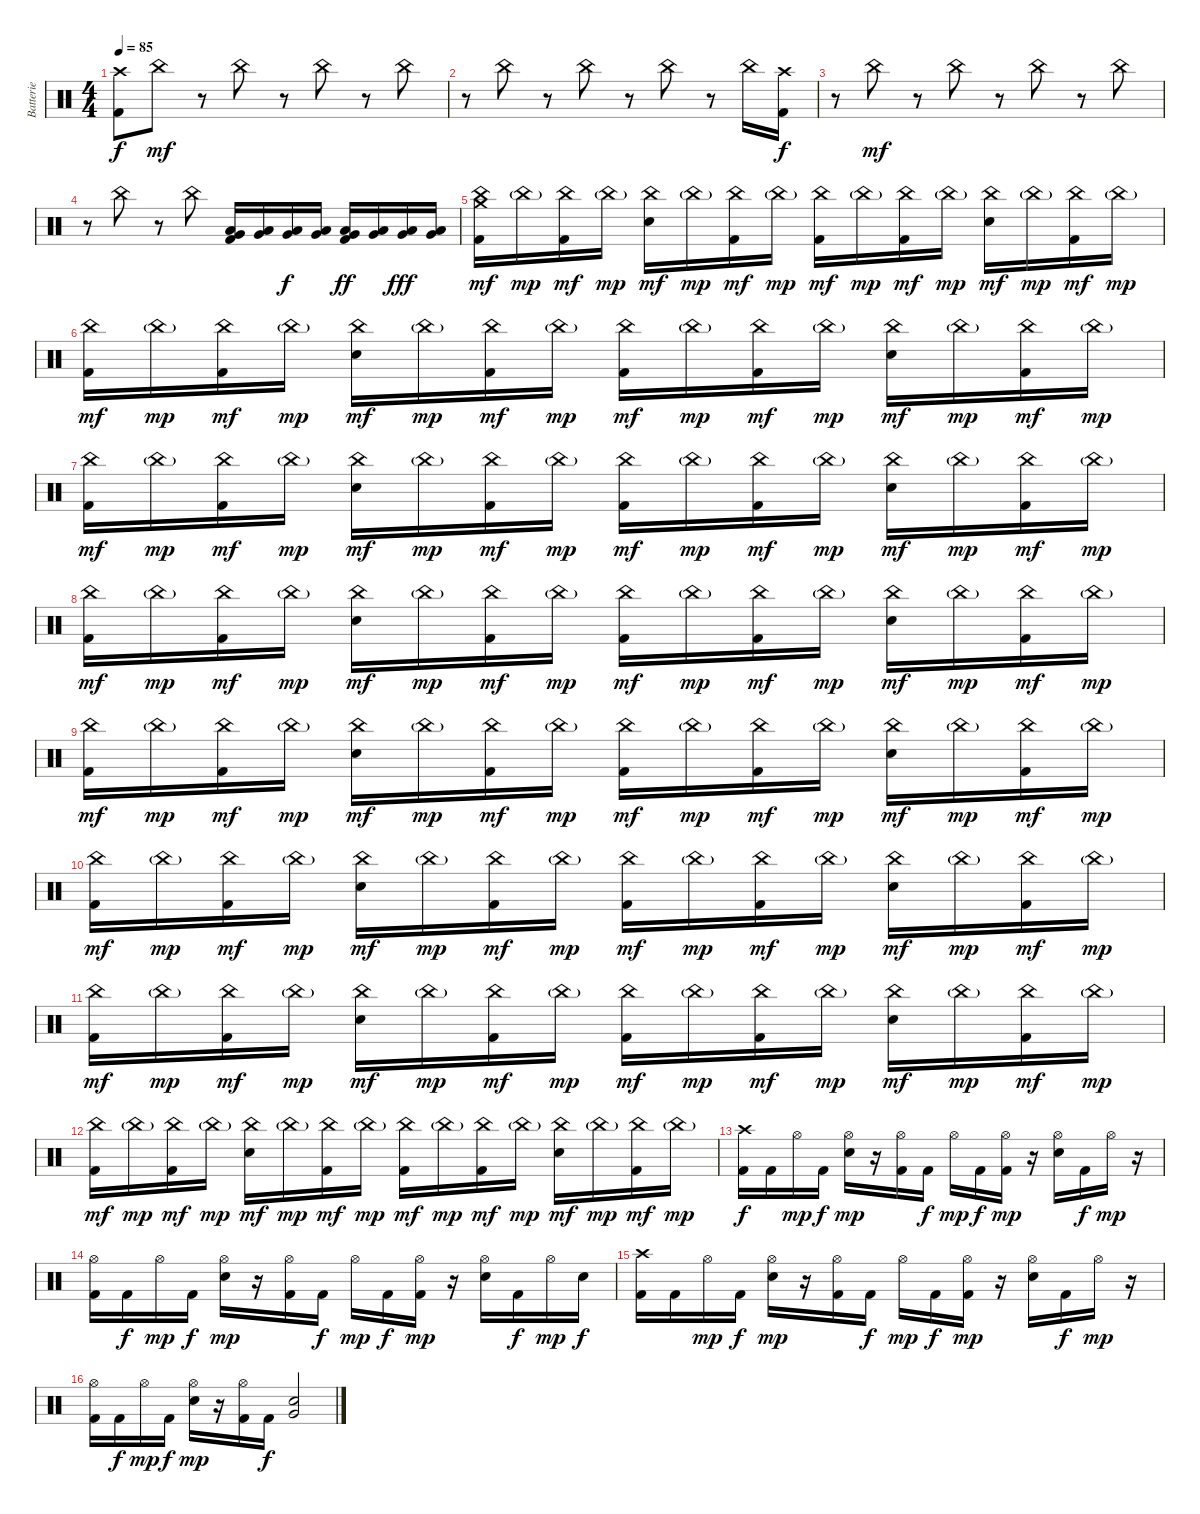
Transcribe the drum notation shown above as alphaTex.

\track ("Batterie" "Batterie") {instrument percussion}
\staff {score}
\articulation defaults
\ts (4 4)
\tempo 85
\clef neutral
\ks c
("Crash high (hit)" "Kick (hit) 2").8{dy f} "China (hit)".8{dy mf} r.8 "China (hit)".8 r.8 "China (hit)".8 r.8 "China (hit)".8 |
r.8 "China (hit)".8 r.8 "China (hit)".8 r.8 "China (hit)".8 r.8 "China (hit)".16 ("Crash high (hit)" "Kick (hit) 2").16{dy f} |
r.8 "China (hit)".8{dy mf} r.8 "China (hit)".8 r.8 "China (hit)".8 r.8 "China (hit)".8 |
r.8 "China (hit)".8 r.8 "China (hit)".8 ("Low Tom (hit)" "Very Low Tom (hit)" "Kick (hit) 2").16 ("Low Tom (hit)" "Very Low Tom (hit)").16 ("Low Tom (hit)" "Very Low Tom (hit)").16{dy f} ("Low Tom (hit)" "Very Low Tom (hit)").16 ("Low Tom (hit)" "Very Low Tom (hit)" "Kick (hit) 2").16{dy ff} ("Low Tom (hit)" "Very Low Tom (hit)").16 ("Low Tom (hit)" "Very Low Tom (hit)").16{dy fff} ("Low Tom (hit)" "Very Low Tom (hit)").16 |
("Crash medium (hit)" "China (hit)" "Kick (hit) 2").16{dy mf} "China (hit)"{g}.16{dy mp} ("China (hit)" "Kick (hit) 2").16{dy mf} "China (hit)"{g}.16{dy mp} ("China (hit)" "Electric Snare (hit)").16{dy mf} "China (hit)"{g}.16{dy mp} ("China (hit)" "Kick (hit) 2").16{dy mf} "China (hit)"{g}.16{dy mp} ("China (hit)" "Kick (hit) 2").16{dy mf} "China (hit)"{g}.16{dy mp} ("China (hit)" "Kick (hit) 2").16{dy mf} "China (hit)"{g}.16{dy mp} ("China (hit)" "Electric Snare (hit)").16{dy mf} "China (hit)"{g}.16{dy mp} ("China (hit)" "Kick (hit) 2").16{dy mf} "China (hit)"{g}.16{dy mp} |
("China (hit)" "Kick (hit) 2").16{dy mf} "China (hit)"{g}.16{dy mp} ("China (hit)" "Kick (hit) 2").16{dy mf} "China (hit)"{g}.16{dy mp} ("China (hit)" "Electric Snare (hit)").16{dy mf} "China (hit)"{g}.16{dy mp} ("China (hit)" "Kick (hit) 2").16{dy mf} "China (hit)"{g}.16{dy mp} ("China (hit)" "Kick (hit) 2").16{dy mf} "China (hit)"{g}.16{dy mp} ("China (hit)" "Kick (hit) 2").16{dy mf} "China (hit)"{g}.16{dy mp} ("China (hit)" "Electric Snare (hit)").16{dy mf} "China (hit)"{g}.16{dy mp} ("China (hit)" "Kick (hit) 2").16{dy mf} "China (hit)"{g}.16{dy mp} |
("China (hit)" "Kick (hit) 2").16{dy mf} "China (hit)"{g}.16{dy mp} ("China (hit)" "Kick (hit) 2").16{dy mf} "China (hit)"{g}.16{dy mp} ("China (hit)" "Electric Snare (hit)").16{dy mf} "China (hit)"{g}.16{dy mp} ("China (hit)" "Kick (hit) 2").16{dy mf} "China (hit)"{g}.16{dy mp} ("China (hit)" "Kick (hit) 2").16{dy mf} "China (hit)"{g}.16{dy mp} ("China (hit)" "Kick (hit) 2").16{dy mf} "China (hit)"{g}.16{dy mp} ("China (hit)" "Electric Snare (hit)").16{dy mf} "China (hit)"{g}.16{dy mp} ("China (hit)" "Kick (hit) 2").16{dy mf} "China (hit)"{g}.16{dy mp} |
("China (hit)" "Kick (hit) 2").16{dy mf} "China (hit)"{g}.16{dy mp} ("China (hit)" "Kick (hit) 2").16{dy mf} "China (hit)"{g}.16{dy mp} ("China (hit)" "Electric Snare (hit)").16{dy mf} "China (hit)"{g}.16{dy mp} ("China (hit)" "Kick (hit) 2").16{dy mf} "China (hit)"{g}.16{dy mp} ("China (hit)" "Kick (hit) 2").16{dy mf} "China (hit)"{g}.16{dy mp} ("China (hit)" "Kick (hit) 2").16{dy mf} "China (hit)"{g}.16{dy mp} ("China (hit)" "Electric Snare (hit)").16{dy mf} "China (hit)"{g}.16{dy mp} ("China (hit)" "Kick (hit) 2").16{dy mf} "China (hit)"{g}.16{dy mp} |
("China (hit)" "Kick (hit) 2").16{dy mf} "China (hit)"{g}.16{dy mp} ("China (hit)" "Kick (hit) 2").16{dy mf} "China (hit)"{g}.16{dy mp} ("China (hit)" "Electric Snare (hit)").16{dy mf} "China (hit)"{g}.16{dy mp} ("China (hit)" "Kick (hit) 2").16{dy mf} "China (hit)"{g}.16{dy mp} ("China (hit)" "Kick (hit) 2").16{dy mf} "China (hit)"{g}.16{dy mp} ("China (hit)" "Kick (hit) 2").16{dy mf} "China (hit)"{g}.16{dy mp} ("China (hit)" "Electric Snare (hit)").16{dy mf} "China (hit)"{g}.16{dy mp} ("China (hit)" "Kick (hit) 2").16{dy mf} "China (hit)"{g}.16{dy mp} |
("China (hit)" "Kick (hit) 2").16{dy mf} "China (hit)"{g}.16{dy mp} ("China (hit)" "Kick (hit) 2").16{dy mf} "China (hit)"{g}.16{dy mp} ("China (hit)" "Electric Snare (hit)").16{dy mf} "China (hit)"{g}.16{dy mp} ("China (hit)" "Kick (hit) 2").16{dy mf} "China (hit)"{g}.16{dy mp} ("China (hit)" "Kick (hit) 2").16{dy mf} "China (hit)"{g}.16{dy mp} ("China (hit)" "Kick (hit) 2").16{dy mf} "China (hit)"{g}.16{dy mp} ("China (hit)" "Electric Snare (hit)").16{dy mf} "China (hit)"{g}.16{dy mp} ("China (hit)" "Kick (hit) 2").16{dy mf} "China (hit)"{g}.16{dy mp} |
("China (hit)" "Kick (hit) 2").16{dy mf} "China (hit)"{g}.16{dy mp} ("China (hit)" "Kick (hit) 2").16{dy mf} "China (hit)"{g}.16{dy mp} ("China (hit)" "Electric Snare (hit)").16{dy mf} "China (hit)"{g}.16{dy mp} ("China (hit)" "Kick (hit) 2").16{dy mf} "China (hit)"{g}.16{dy mp} ("China (hit)" "Kick (hit) 2").16{dy mf} "China (hit)"{g}.16{dy mp} ("China (hit)" "Kick (hit) 2").16{dy mf} "China (hit)"{g}.16{dy mp} ("China (hit)" "Electric Snare (hit)").16{dy mf} "China (hit)"{g}.16{dy mp} ("China (hit)" "Kick (hit) 2").16{dy mf} "China (hit)"{g}.16{dy mp} |
("China (hit)" "Kick (hit) 2").16{dy mf} "China (hit)"{g}.16{dy mp} ("China (hit)" "Kick (hit) 2").16{dy mf} "China (hit)"{g}.16{dy mp} ("China (hit)" "Electric Snare (hit)").16{dy mf} "China (hit)"{g}.16{dy mp} ("China (hit)" "Kick (hit) 2").16{dy mf} "China (hit)"{g}.16{dy mp} ("China (hit)" "Kick (hit) 2").16{dy mf} "China (hit)"{g}.16{dy mp} ("China (hit)" "Kick (hit) 2").16{dy mf} "China (hit)"{g}.16{dy mp} ("China (hit)" "Electric Snare (hit)").16{dy mf} "China (hit)"{g}.16{dy mp} ("China (hit)" "Kick (hit) 2").16{dy mf} "China (hit)"{g}.16{dy mp} |
("Crash high (hit)" "Kick (hit) 2").16{dy f} "Kick (hit) 2".16 "Hi-Hat (open)".16{dy mp} "Kick (hit) 2".16{dy f} ("Hi-Hat (open)" "Electric Snare (hit)").16{dy mp} r.16 ("Hi-Hat (open)" "Kick (hit) 2").16 "Kick (hit) 2".16{dy f} "Hi-Hat (open)".16{dy mp} "Kick (hit) 2".16{dy f} ("Hi-Hat (open)" "Kick (hit) 2").16{dy mp} r.16 ("Hi-Hat (open)" "Electric Snare (hit)").16 "Kick (hit) 2".16{dy f} "Hi-Hat (open)".16{dy mp} r.16 |
("Hi-Hat (open)" "Kick (hit) 2").16 "Kick (hit) 2".16{dy f} "Hi-Hat (open)".16{dy mp} "Kick (hit) 2".16{dy f} ("Hi-Hat (open)" "Electric Snare (hit)").16{dy mp} r.16 ("Hi-Hat (open)" "Kick (hit) 2").16 "Kick (hit) 2".16{dy f} "Hi-Hat (open)".16{dy mp} "Kick (hit) 2".16{dy f} ("Hi-Hat (open)" "Kick (hit) 2").16{dy mp} r.16 ("Hi-Hat (open)" "Electric Snare (hit)").16 "Kick (hit) 2".16{dy f} "Hi-Hat (open)".16{dy mp} "Electric Snare (hit)".16{dy f} |
("Crash high (hit)" "Kick (hit) 2").16 "Kick (hit) 2".16 "Hi-Hat (open)".16{dy mp} "Kick (hit) 2".16{dy f} ("Hi-Hat (open)" "Electric Snare (hit)").16{dy mp} r.16 ("Hi-Hat (open)" "Kick (hit) 2").16 "Kick (hit) 2".16{dy f} "Hi-Hat (open)".16{dy mp} "Kick (hit) 2".16{dy f} ("Hi-Hat (open)" "Kick (hit) 2").16{dy mp} r.16 ("Hi-Hat (open)" "Electric Snare (hit)").16 "Kick (hit) 2".16{dy f} "Hi-Hat (open)".16{dy mp} r.16 |
("Hi-Hat (open)" "Kick (hit) 2").16 "Kick (hit) 2".16{dy f} "Hi-Hat (open)".16{dy mp} "Kick (hit) 2".16{dy f} ("Hi-Hat (open)" "Electric Snare (hit)").16{dy mp} r.16 ("Hi-Hat (open)" "Kick (hit) 2").16 "Kick (hit) 2".16{dy f} ("Electric Snare (hit)" "Very Low Tom (hit)").2
